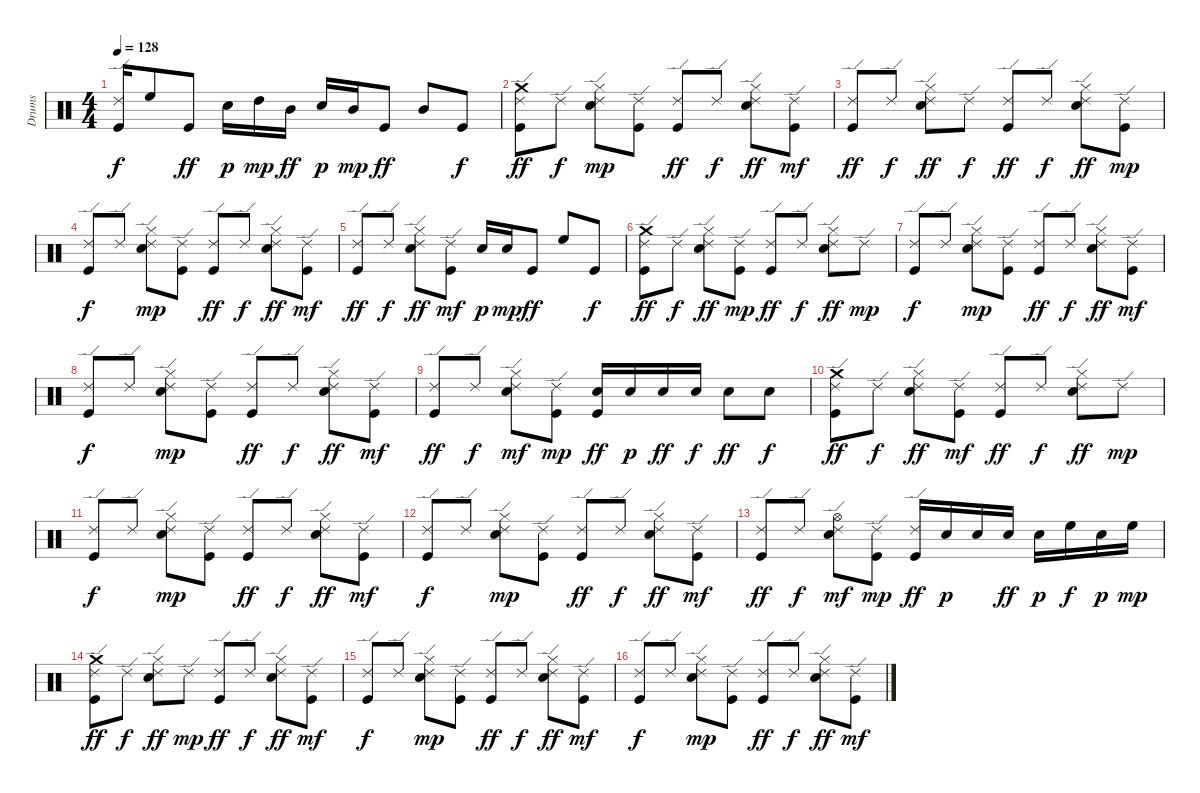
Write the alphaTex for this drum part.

\track ("Drums" "Drums") {instrument percussion}
\staff {score}
\articulation defaults
\ts (4 4)
\tempo 128
\clef neutral
\ks c
("Ride (edge) 2" "Kick (hit)").16{dy f} "High Floor Tom (hit)".8 "Kick (hit)".8{dy ff} "Electric Snare (hit)".16{dy p} "High Tom (hit)".16{dy mp} "Mid Tom (hit)".16{dy ff} "Electric Snare (hit)".16{dy p} "Mid Tom (hit)".16{dy mp} "Kick (hit)".8{dy ff} "Mid Tom (hit)".8 "Kick (hit)".8{dy f} |
("Crash medium (hit)" "Ride (edge) 2" "Kick (hit)").8{dy ff} "Ride (edge) 2".8{dy f} ("Electric Snare (hit)" "Hi-Hat (closed)" "Ride (edge) 2").8{dy mp} ("Ride (edge) 2" "Kick (hit)").8 ("Ride (edge) 2" "Kick (hit)").8{dy ff} "Ride (edge) 2".8{dy f} ("Electric Snare (hit)" "Hi-Hat (closed)" "Ride (edge) 2").8{dy ff} ("Ride (edge) 2" "Kick (hit)").8{dy mf} |
("Ride (edge) 2" "Kick (hit)").8{dy ff} "Ride (edge) 2".8{dy f} ("Electric Snare (hit)" "Hi-Hat (closed)" "Ride (edge) 2").8{dy ff} "Ride (edge) 2".8{dy f} ("Ride (edge) 2" "Kick (hit)").8{dy ff} "Ride (edge) 2".8{dy f} ("Electric Snare (hit)" "Hi-Hat (closed)" "Ride (edge) 2").8{dy ff} ("Ride (edge) 2" "Kick (hit)").8{dy mp} |
("Ride (edge) 2" "Kick (hit)").8{dy f} "Ride (edge) 2".8 ("Electric Snare (hit)" "Hi-Hat (closed)" "Ride (edge) 2").8{dy mp} ("Ride (edge) 2" "Kick (hit)").8 ("Ride (edge) 2" "Kick (hit)").8{dy ff} "Ride (edge) 2".8{dy f} ("Electric Snare (hit)" "Hi-Hat (closed)" "Ride (edge) 2").8{dy ff} ("Ride (edge) 2" "Kick (hit)").8{dy mf} |
("Ride (edge) 2" "Kick (hit)").8{dy ff} "Ride (edge) 2".8{dy f} ("Electric Snare (hit)" "Hi-Hat (closed)" "Ride (edge) 2").8{dy ff} ("Ride (edge) 2" "Kick (hit)").8{dy mf} "Electric Snare (hit)".16{dy p} "Electric Snare (hit)".16{dy mp} "Kick (hit)".8{dy ff} "High Floor Tom (hit)".8 "Kick (hit)".8{dy f} |
("Crash medium (hit)" "Ride (edge) 2" "Kick (hit)").8{dy ff} "Ride (edge) 2".8{dy f} ("Electric Snare (hit)" "Hi-Hat (closed)" "Ride (edge) 2").8{dy ff} ("Ride (edge) 2" "Kick (hit)").8{dy mp} ("Ride (edge) 2" "Kick (hit)").8{dy ff} "Ride (edge) 2".8{dy f} ("Electric Snare (hit)" "Hi-Hat (closed)" "Ride (edge) 2").8{dy ff} "Ride (edge) 2".8{dy mp} |
("Ride (edge) 2" "Kick (hit)").8{dy f} "Ride (edge) 2".8 ("Electric Snare (hit)" "Hi-Hat (closed)" "Ride (edge) 2").8{dy mp} ("Ride (edge) 2" "Kick (hit)").8 ("Ride (edge) 2" "Kick (hit)").8{dy ff} "Ride (edge) 2".8{dy f} ("Electric Snare (hit)" "Hi-Hat (closed)" "Ride (edge) 2").8{dy ff} ("Ride (edge) 2" "Kick (hit)").8{dy mf} |
("Ride (edge) 2" "Kick (hit)").8{dy f} "Ride (edge) 2".8 ("Electric Snare (hit)" "Hi-Hat (closed)" "Ride (edge) 2").8{dy mp} ("Ride (edge) 2" "Kick (hit)").8 ("Ride (edge) 2" "Kick (hit)").8{dy ff} "Ride (edge) 2".8{dy f} ("Electric Snare (hit)" "Hi-Hat (closed)" "Ride (edge) 2").8{dy ff} ("Ride (edge) 2" "Kick (hit)").8{dy mf} |
("Ride (edge) 2" "Kick (hit)").8{dy ff} "Ride (edge) 2".8{dy f} ("Electric Snare (hit)" "Hi-Hat (closed)" "Ride (edge) 2").8{dy mf} ("Ride (edge) 2" "Kick (hit)").8{dy mp} ("Electric Snare (hit)" "Kick (hit)").16{dy ff} "Electric Snare (hit)".16{dy p} "Electric Snare (hit)".16{dy ff} "Electric Snare (hit)".16{dy f} "Electric Snare (hit)".8{dy ff} "Electric Snare (hit)".8{dy f} |
("Crash medium (hit)" "Ride (edge) 2" "Kick (hit)").8{dy ff} "Ride (edge) 2".8{dy f} ("Electric Snare (hit)" "Hi-Hat (closed)" "Ride (edge) 2").8{dy ff} ("Ride (edge) 2" "Kick (hit)").8{dy mf} ("Ride (edge) 2" "Kick (hit)").8{dy ff} "Ride (edge) 2".8{dy f} ("Electric Snare (hit)" "Hi-Hat (closed)" "Ride (edge) 2").8{dy ff} "Ride (edge) 2".8{dy mp} |
("Ride (edge) 2" "Kick (hit)").8{dy f} "Ride (edge) 2".8 ("Electric Snare (hit)" "Hi-Hat (closed)" "Ride (edge) 2").8{dy mp} ("Ride (edge) 2" "Kick (hit)").8 ("Ride (edge) 2" "Kick (hit)").8{dy ff} "Ride (edge) 2".8{dy f} ("Electric Snare (hit)" "Hi-Hat (closed)" "Ride (edge) 2").8{dy ff} ("Ride (edge) 2" "Kick (hit)").8{dy mf} |
("Ride (edge) 2" "Kick (hit)").8{dy f} "Ride (edge) 2".8 ("Electric Snare (hit)" "Hi-Hat (closed)" "Ride (edge) 2").8{dy mp} ("Ride (edge) 2" "Kick (hit)").8 ("Ride (edge) 2" "Kick (hit)").8{dy ff} "Ride (edge) 2".8{dy f} ("Electric Snare (hit)" "Hi-Hat (closed)" "Ride (edge) 2").8{dy ff} ("Ride (edge) 2" "Kick (hit)").8{dy mf} |
("Ride (edge) 2" "Kick (hit)").8{dy ff} "Ride (edge) 2".8{dy f} ("Electric Snare (hit)" "Hi-Hat (open)" "Ride (edge) 2").8{dy mf} ("Ride (edge) 2" "Kick (hit)").8{dy mp} ("Ride (edge) 2" "Kick (hit)").16{dy ff} "Electric Snare (hit)".16{dy p} "Electric Snare (hit)".16 "Electric Snare (hit)".16{dy ff} "Electric Snare (hit)".16{dy p} "High Floor Tom (hit)".16{dy f} "Electric Snare (hit)".16{dy p} "High Floor Tom (hit)".16{dy mp} |
("Crash medium (hit)" "Ride (edge) 2" "Kick (hit)").8{dy ff} "Ride (edge) 2".8{dy f} ("Electric Snare (hit)" "Hi-Hat (closed)" "Ride (edge) 2").8{dy ff} "Ride (edge) 2".8{dy mp} ("Ride (edge) 2" "Kick (hit)").8{dy ff} "Ride (edge) 2".8{dy f} ("Electric Snare (hit)" "Hi-Hat (closed)" "Ride (edge) 2").8{dy ff} ("Ride (edge) 2" "Kick (hit)").8{dy mf} |
("Ride (edge) 2" "Kick (hit)").8{dy f} "Ride (edge) 2".8 ("Electric Snare (hit)" "Hi-Hat (closed)" "Ride (edge) 2").8{dy mp} ("Ride (edge) 2" "Kick (hit)").8 ("Ride (edge) 2" "Kick (hit)").8{dy ff} "Ride (edge) 2".8{dy f} ("Electric Snare (hit)" "Hi-Hat (closed)" "Ride (edge) 2").8{dy ff} ("Ride (edge) 2" "Kick (hit)").8{dy mf} |
("Ride (edge) 2" "Kick (hit)").8{dy f} "Ride (edge) 2".8 ("Electric Snare (hit)" "Hi-Hat (closed)" "Ride (edge) 2").8{dy mp} ("Ride (edge) 2" "Kick (hit)").8 ("Ride (edge) 2" "Kick (hit)").8{dy ff} "Ride (edge) 2".8{dy f} ("Electric Snare (hit)" "Hi-Hat (closed)" "Ride (edge) 2").8{dy ff} ("Ride (edge) 2" "Kick (hit)").8{dy mf}
